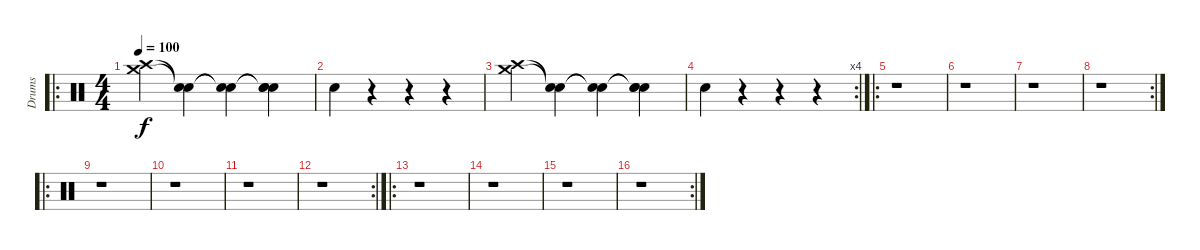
\track ("Drums" "Drums") {instrument percussion}
\staff {score}
\articulation defaults
\ro
\ts (4 4)
\tempo 100
\clef neutral
\ks c
("Crash high (hit)" "Crash medium (hit)").4{dy f} ("Snare (hit)"{t} "Snare (hit)"{t}).4 ("Snare (hit)"{t} "Snare (hit)"{t}).4 ("Snare (hit)"{t} "Snare (hit)"{t} "Metronome (bell)").4 |
"Metronome (bell)".4 r.4 r.4 r.4 |
("Crash high (hit)" "Crash medium (hit)").4 ("Snare (hit)"{t} "Snare (hit)"{t}).4 ("Snare (hit)"{t} "Snare (hit)"{t}).4 ("Snare (hit)"{t} "Snare (hit)"{t} "Metronome (bell)").4 |
\rc 4 "Metronome (bell)".4
r.4 r.4 r.4 |
\ro
r.1 |
r.1 |
r.1 |
\rc 2
r.1 |
\ro
r.1 |
r.1 |
r.1 |
\rc 2
r.1 |
\ro
r.1 |
r.1 |
r.1 |
\rc 2
r.1
